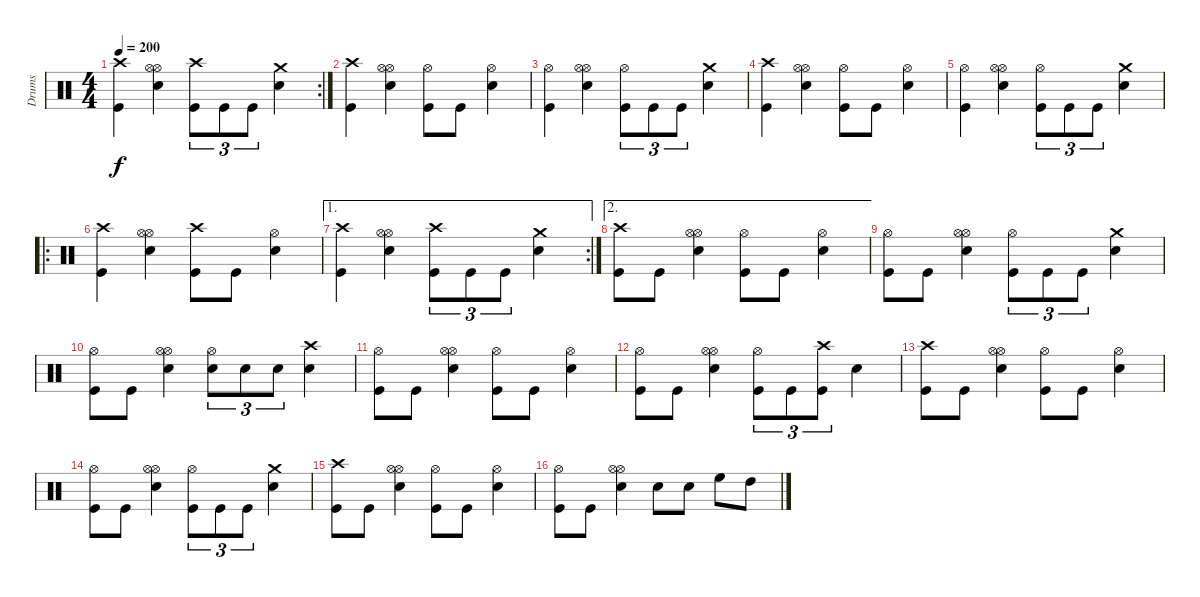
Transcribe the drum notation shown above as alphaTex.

\track ("Drums" "Drums") {instrument percussion}
\staff {score}
\articulation defaults
\rc 2
\ts (4 4)
\tempo 200
\clef neutral
\ks c
("Crash high (hit)" "Kick (hit)").4{dy f} ("Hi-Hat (open)" "Snare (hit) 2" "Hi-Hat (open)").4 ("Crash high (hit)" "Kick (hit)").8{tu (3 2)} "Kick (hit)".8{tu (3 2)} "Kick (hit)".8{tu (3 2)} ("Crash medium (hit)" "Snare (hit) 2").4 |
("Crash high (hit)" "Kick (hit)").4 ("Hi-Hat (open)" "Snare (hit) 2" "Hi-Hat (open)").4 ("Hi-Hat (open)" "Kick (hit)").8 "Kick (hit)".8 ("Hi-Hat (open)" "Snare (hit) 2").4 |
("Hi-Hat (open)" "Kick (hit)").4 ("Hi-Hat (open)" "Snare (hit) 2" "Hi-Hat (open)").4 ("Hi-Hat (open)" "Kick (hit)").8{tu (3 2)} "Kick (hit)".8{tu (3 2)} "Kick (hit)".8{tu (3 2)} ("Crash medium (hit)" "Snare (hit) 2").4 |
("Crash high (hit)" "Kick (hit)").4 ("Hi-Hat (open)" "Snare (hit) 2" "Hi-Hat (open)").4 ("Hi-Hat (open)" "Kick (hit)").8 "Kick (hit)".8 ("Hi-Hat (open)" "Snare (hit) 2").4 |
("Hi-Hat (open)" "Kick (hit)").4 ("Hi-Hat (open)" "Snare (hit) 2" "Hi-Hat (open)").4 ("Hi-Hat (open)" "Kick (hit)").8{tu (3 2)} "Kick (hit)".8{tu (3 2)} "Kick (hit)".8{tu (3 2)} ("Crash medium (hit)" "Snare (hit) 2").4 |
\ro
("Crash high (hit)" "Kick (hit)").4 ("Hi-Hat (open)" "Snare (hit) 2" "Hi-Hat (open)").4 ("Crash high (hit)" "Kick (hit)").8 "Kick (hit)".8 ("Hi-Hat (open)" "Snare (hit) 2").4 |
\ae 1
\rc 2
("Crash high (hit)" "Kick (hit)").4 ("Hi-Hat (open)" "Snare (hit) 2" "Hi-Hat (open)").4 ("Crash high (hit)" "Kick (hit)").8{tu (3 2)} "Kick (hit)".8{tu (3 2)} "Kick (hit)".8{tu (3 2)} ("Crash medium (hit)" "Snare (hit) 2").4 |
\ae 2
("Crash high (hit)" "Kick (hit)").8 "Kick (hit)".8 ("Hi-Hat (open)" "Snare (hit) 2" "Hi-Hat (open)").4 ("Hi-Hat (open)" "Kick (hit)").8 "Kick (hit)".8 ("Hi-Hat (open)" "Snare (hit) 2").4 |
("Hi-Hat (open)" "Kick (hit)").8 "Kick (hit)".8 ("Hi-Hat (open)" "Snare (hit) 2" "Hi-Hat (open)").4 ("Hi-Hat (open)" "Kick (hit)").8{tu (3 2)} "Kick (hit)".8{tu (3 2)} "Kick (hit)".8{tu (3 2)} ("Crash medium (hit)" "Snare (hit) 2").4 |
("Hi-Hat (open)" "Kick (hit)").8 "Kick (hit)".8 ("Hi-Hat (open)" "Snare (hit) 2" "Hi-Hat (open)").4 ("Hi-Hat (open)" "Snare (hit) 2").8{tu (3 2)} "Snare (hit) 2".8{tu (3 2)} "Snare (hit) 2".8{tu (3 2)} ("Crash high (hit)" "Snare (hit) 2").4 |
("Hi-Hat (open)" "Kick (hit)").8 "Kick (hit)".8 ("Hi-Hat (open)" "Snare (hit) 2" "Hi-Hat (open)").4 ("Hi-Hat (open)" "Kick (hit)").8 "Kick (hit)".8 ("Hi-Hat (open)" "Snare (hit) 2").4 |
("Hi-Hat (open)" "Kick (hit)").8 "Kick (hit)".8 ("Hi-Hat (open)" "Snare (hit) 2" "Hi-Hat (open)").4 ("Hi-Hat (open)" "Kick (hit)").8{tu (3 2)} "Kick (hit)".8{tu (3 2)} ("Crash high (hit)" "Kick (hit)").8{tu (3 2)} "Snare (hit) 2".4 |
("Crash high (hit)" "Kick (hit)").8 "Kick (hit)".8 ("Hi-Hat (open)" "Snare (hit) 2" "Hi-Hat (open)").4 ("Hi-Hat (open)" "Kick (hit)").8 "Kick (hit)".8 ("Hi-Hat (open)" "Snare (hit) 2").4 |
("Hi-Hat (open)" "Kick (hit)").8 "Kick (hit)".8 ("Hi-Hat (open)" "Snare (hit) 2" "Hi-Hat (open)").4 ("Hi-Hat (open)" "Kick (hit)").8{tu (3 2)} "Kick (hit)".8{tu (3 2)} "Kick (hit)".8{tu (3 2)} ("Crash medium (hit)" "Snare (hit) 2").4 |
("Crash high (hit)" "Kick (hit)").8 "Kick (hit)".8 ("Hi-Hat (open)" "Snare (hit) 2" "Hi-Hat (open)").4 ("Hi-Hat (open)" "Kick (hit)").8 "Kick (hit)".8 ("Hi-Hat (open)" "Snare (hit) 2").4 |
("Hi-Hat (open)" "Kick (hit)").8 "Kick (hit)".8 ("Hi-Hat (open)" "Snare (hit) 2" "Hi-Hat (open)").4 "Snare (hit) 2".8 "Snare (hit) 2".8 "High Floor Tom (hit)".8 "High Tom (hit)".8
